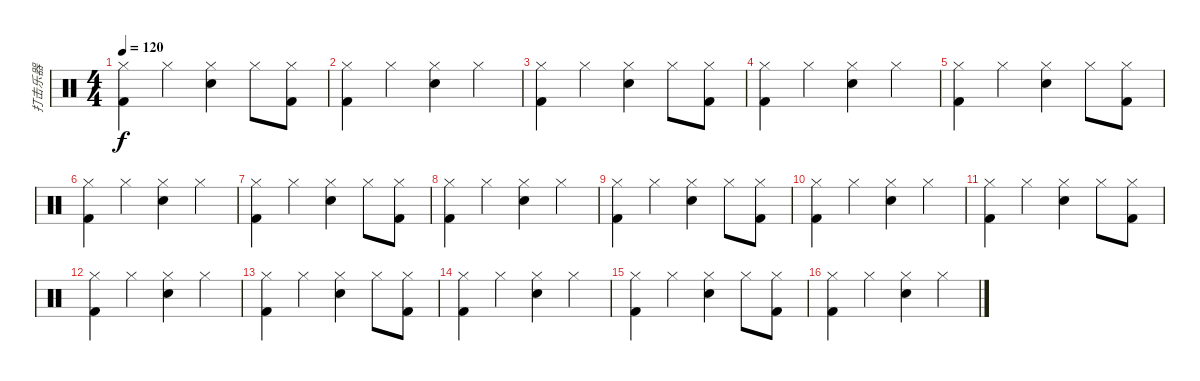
\track ("打击乐器" "打击乐器") {instrument percussion}
\staff {score}
\articulation defaults
\ts (4 4)
\tempo 120
\clef neutral
\ks c
("Hi-Hat (closed)" "Kick (hit) 2").4{dy f} "Hi-Hat (closed)".4 ("Hi-Hat (closed)" "Electric Snare (hit)").4 "Hi-Hat (closed)".8 ("Hi-Hat (closed)" "Kick (hit) 2").8 |
("Hi-Hat (closed)" "Kick (hit) 2").4 "Hi-Hat (closed)".4 ("Hi-Hat (closed)" "Electric Snare (hit)").4 "Hi-Hat (closed)".4 |
("Hi-Hat (closed)" "Kick (hit) 2").4 "Hi-Hat (closed)".4 ("Hi-Hat (closed)" "Electric Snare (hit)").4 "Hi-Hat (closed)".8 ("Hi-Hat (closed)" "Kick (hit) 2").8 |
("Hi-Hat (closed)" "Kick (hit) 2").4 "Hi-Hat (closed)".4 ("Hi-Hat (closed)" "Electric Snare (hit)").4 "Hi-Hat (closed)".4 |
("Hi-Hat (closed)" "Kick (hit) 2").4 "Hi-Hat (closed)".4 ("Hi-Hat (closed)" "Electric Snare (hit)").4 "Hi-Hat (closed)".8 ("Hi-Hat (closed)" "Kick (hit) 2").8 |
("Hi-Hat (closed)" "Kick (hit) 2").4 "Hi-Hat (closed)".4 ("Hi-Hat (closed)" "Electric Snare (hit)").4 "Hi-Hat (closed)".4 |
("Hi-Hat (closed)" "Kick (hit) 2").4 "Hi-Hat (closed)".4 ("Hi-Hat (closed)" "Electric Snare (hit)").4 "Hi-Hat (closed)".8 ("Hi-Hat (closed)" "Kick (hit) 2").8 |
("Hi-Hat (closed)" "Kick (hit) 2").4 "Hi-Hat (closed)".4 ("Hi-Hat (closed)" "Electric Snare (hit)").4 "Hi-Hat (closed)".4 |
("Hi-Hat (closed)" "Kick (hit) 2").4 "Hi-Hat (closed)".4 ("Hi-Hat (closed)" "Electric Snare (hit)").4 "Hi-Hat (closed)".8 ("Hi-Hat (closed)" "Kick (hit) 2").8 |
("Hi-Hat (closed)" "Kick (hit) 2").4 "Hi-Hat (closed)".4 ("Hi-Hat (closed)" "Electric Snare (hit)").4 "Hi-Hat (closed)".4 |
("Hi-Hat (closed)" "Kick (hit) 2").4 "Hi-Hat (closed)".4 ("Hi-Hat (closed)" "Electric Snare (hit)").4 "Hi-Hat (closed)".8 ("Hi-Hat (closed)" "Kick (hit) 2").8 |
("Hi-Hat (closed)" "Kick (hit) 2").4 "Hi-Hat (closed)".4 ("Hi-Hat (closed)" "Electric Snare (hit)").4 "Hi-Hat (closed)".4 |
("Hi-Hat (closed)" "Kick (hit) 2").4 "Hi-Hat (closed)".4 ("Hi-Hat (closed)" "Electric Snare (hit)").4 "Hi-Hat (closed)".8 ("Hi-Hat (closed)" "Kick (hit) 2").8 |
("Hi-Hat (closed)" "Kick (hit) 2").4 "Hi-Hat (closed)".4 ("Hi-Hat (closed)" "Electric Snare (hit)").4 "Hi-Hat (closed)".4 |
("Hi-Hat (closed)" "Kick (hit) 2").4 "Hi-Hat (closed)".4 ("Hi-Hat (closed)" "Electric Snare (hit)").4 "Hi-Hat (closed)".8 ("Hi-Hat (closed)" "Kick (hit) 2").8 |
("Hi-Hat (closed)" "Kick (hit) 2").4 "Hi-Hat (closed)".4 ("Hi-Hat (closed)" "Electric Snare (hit)").4 "Hi-Hat (closed)".4
